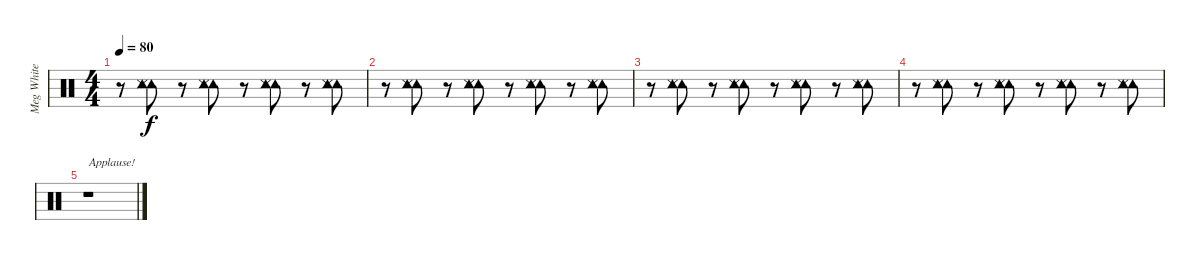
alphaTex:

\track ("Meg White (Tambourine)" "Meg White ") {instrument percussion}
\staff {score}
\articulation defaults
\ts (4 4)
\tempo 80
\clef neutral
\ks c
r.8{dy f} ("Tambourine (hit)" "Tambourine (hit)" "Metronome (hit)").8 r.8 ("Tambourine (hit)" "Tambourine (hit)" "Metronome (hit)").8 r.8 ("Tambourine (hit)" "Tambourine (hit)" "Metronome (hit)").8 r.8 ("Tambourine (hit)" "Tambourine (hit)" "Metronome (hit)").8 |
r.8 ("Tambourine (hit)" "Tambourine (hit)" "Metronome (hit)").8 r.8 ("Tambourine (hit)" "Tambourine (hit)" "Metronome (hit)").8 r.8 ("Tambourine (hit)" "Tambourine (hit)" "Metronome (hit)").8 r.8 ("Tambourine (hit)" "Tambourine (hit)" "Metronome (hit)").8 |
r.8 ("Tambourine (hit)" "Tambourine (hit)" "Metronome (hit)").8 r.8 ("Tambourine (hit)" "Tambourine (hit)" "Metronome (hit)").8 r.8 ("Tambourine (hit)" "Tambourine (hit)" "Metronome (hit)").8 r.8 ("Tambourine (hit)" "Tambourine (hit)" "Metronome (hit)").8 |
r.8 ("Tambourine (hit)" "Tambourine (hit)" "Metronome (hit)").8 r.8 ("Tambourine (hit)" "Tambourine (hit)" "Metronome (hit)").8 r.8 ("Tambourine (hit)" "Tambourine (hit)" "Metronome (hit)").8 r.8 ("Tambourine (hit)" "Tambourine (hit)" "Metronome (hit)").8 |
r.1{txt "Applause!"}
